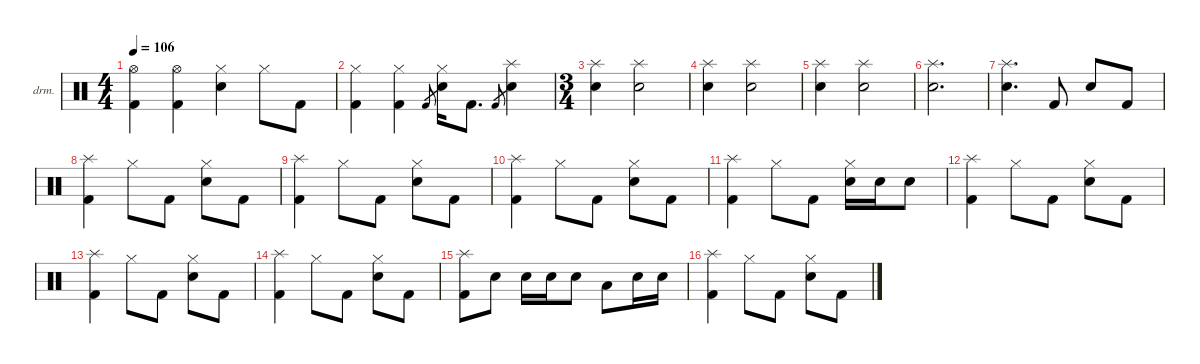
\defaultSystemsLayout 4
\hideDynamics
\bracketExtendMode nobrackets
\firstSystemTrackNameOrientation horizontal
\otherSystemsTrackNameOrientation horizontal
\track ("Lars Ulrich" "drm.") {instrument percussion}
\staff {score}
\articulation defaults
\ts (4 4)
\tempo 106
\clef neutral
\ks c
("Hi-Hat (open)" "Kick (hit) 2").4{dy f} ("Hi-Hat (open)" "Kick (hit) 2").4 ("Hi-Hat (closed)" "Snare (hit) 2").4 "Hi-Hat (closed)".8 "Kick (hit) 2".8 |
("Hi-Hat (closed)" "Kick (hit) 2").4 ("Hi-Hat (closed)" "Kick (hit) 2").4 "Kick (hit) 2".8{gr dy mf} ("Hi-Hat (closed)" "Snare (hit) 2").16{dy f} "Kick (hit) 2".8{d} "Kick (hit) 2".8{gr dy mf} ("Splash (hit)" "Snare (hit) 2").4{dy fff} |
\ts (3 4)
("Splash (hit)" "Snare (hit) 2").4 ("Splash (hit)" "Snare (hit) 2").2 |
("Splash (hit)" "Snare (hit) 2").4 ("Splash (hit)" "Snare (hit) 2").2 |
("Splash (hit)" "Snare (hit) 2").4 ("Splash (hit)" "Snare (hit) 2").2 |
("Splash (hit)" "Snare (hit) 2").2{d} |
("Splash (hit)" "Snare (hit) 2").4{d} "Kick (hit) 2".8{dy f} "Snare (hit) 2".8 "Kick (hit) 2".8 |
("Splash (hit)" "Kick (hit) 2").4{dy fff} "Hi-Hat (closed)".8{dy f} "Kick (hit) 2".8 ("Hi-Hat (closed)" "Snare (hit) 2").8 "Kick (hit) 2".8 |
("Splash (hit)" "Kick (hit) 2").4{dy fff} "Hi-Hat (closed)".8{dy f} "Kick (hit) 2".8 ("Hi-Hat (closed)" "Snare (hit) 2").8 "Kick (hit) 2".8 |
("Splash (hit)" "Kick (hit) 2").4{dy fff} "Hi-Hat (closed)".8{dy f} "Kick (hit) 2".8 ("Hi-Hat (closed)" "Snare (hit) 2").8 "Kick (hit) 2".8 |
("Splash (hit)" "Kick (hit) 2").4{dy fff} "Hi-Hat (closed)".8{dy f} "Kick (hit) 2".8 ("Hi-Hat (closed)" "Snare (hit) 2").16 "Snare (hit) 2".16 "Snare (hit) 2".8 |
("Splash (hit)" "Kick (hit) 2").4{dy fff} "Hi-Hat (closed)".8{dy f} "Kick (hit) 2".8 ("Hi-Hat (closed)" "Snare (hit) 2").8 "Kick (hit) 2".8 |
("Splash (hit)" "Kick (hit) 2").4{dy fff} "Hi-Hat (closed)".8{dy f} "Kick (hit) 2".8 ("Hi-Hat (closed)" "Snare (hit) 2").8 "Kick (hit) 2".8 |
("Splash (hit)" "Kick (hit) 2").4{dy fff} "Hi-Hat (closed)".8{dy f} "Kick (hit) 2".8 ("Hi-Hat (closed)" "Snare (hit) 2").8 "Kick (hit) 2".8 |
("Splash (hit)" "Kick (hit) 2").8{dy fff} "Snare (hit) 2".8{dy f} "Snare (hit) 2".16 "Snare (hit) 2".16 "Snare (hit) 2".8 "Low Tom (hit)".8 "Snare (hit) 2".16 "Snare (hit) 2".16 |
("Splash (hit)" "Kick (hit) 2").4{dy fff} "Hi-Hat (closed)".8{dy f} "Kick (hit) 2".8 ("Hi-Hat (closed)" "Snare (hit) 2").8 "Kick (hit) 2".8
